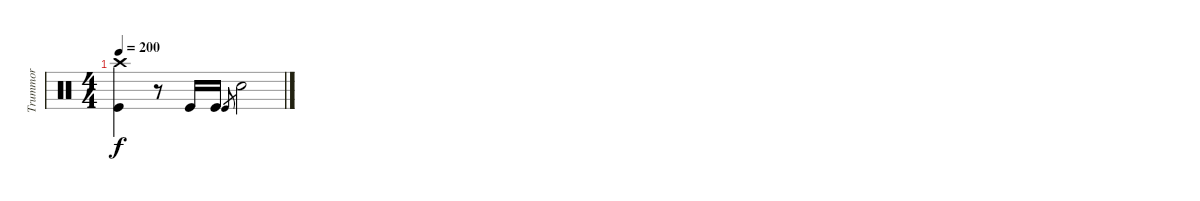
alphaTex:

\track ("Trummor" "Trummor") {instrument percussion}
\staff {score}
\articulation defaults
\ts (4 4)
\tempo 200
\clef neutral
\ks c
("Crash high (hit)" "Kick (hit)").4{dy f} r.8 "Kick (hit)".16 "Kick (hit)".16 "Kick (hit)"{sl}.8{gr} "Electric Snare (hit)".2
